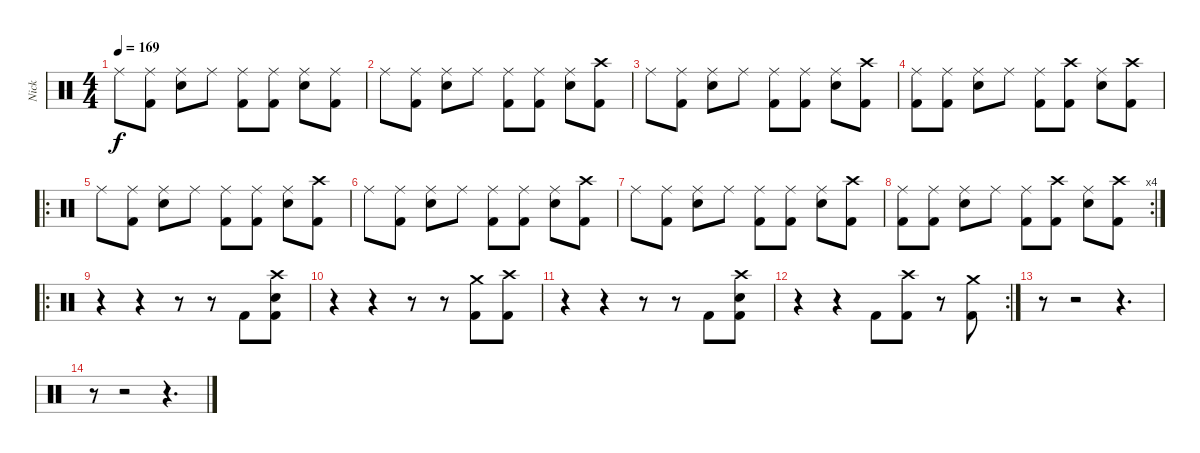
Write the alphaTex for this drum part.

\track ("Nick" "Nick") {instrument percussion}
\staff {score}
\articulation defaults
\ts (4 4)
\tempo 169
\clef neutral
\ks c "Ride (middle)".8{dy f}
("Ride (middle)" "Kick (hit) 2").8 ("Ride (middle)" "Snare (hit) 2").8 "Ride (middle)".8 ("Ride (middle)" "Kick (hit) 2").8 ("Ride (middle)" "Kick (hit) 2").8 ("Ride (middle)" "Snare (hit) 2").8 ("Ride (middle)" "Kick (hit) 2").8 |
"Ride (middle)".8 ("Ride (middle)" "Kick (hit) 2").8 ("Ride (middle)" "Snare (hit) 2").8 "Ride (middle)".8 ("Ride (middle)" "Kick (hit) 2").8 ("Ride (middle)" "Kick (hit) 2").8 ("Ride (middle)" "Snare (hit) 2").8 ("Crash high (hit)" "Kick (hit) 2").8 |
"Ride (middle)".8 ("Ride (middle)" "Kick (hit) 2").8 ("Ride (middle)" "Snare (hit) 2").8 "Ride (middle)".8 ("Ride (middle)" "Kick (hit) 2").8 ("Ride (middle)" "Kick (hit) 2").8 ("Ride (middle)" "Snare (hit) 2").8 ("Crash high (hit)" "Kick (hit) 2").8 |
("Ride (middle)" "Kick (hit) 2").8 ("Ride (middle)" "Kick (hit) 2").8 ("Ride (middle)" "Snare (hit) 2").8 "Ride (middle)".8 ("Ride (middle)" "Kick (hit) 2").8 ("Crash high (hit)" "Kick (hit) 2").8 ("Ride (middle)" "Snare (hit) 2").8 ("Crash high (hit)" "Kick (hit) 2").8 |
\ro "Ride (middle)".8
("Ride (middle)" "Kick (hit) 2").8 ("Ride (middle)" "Snare (hit) 2").8 "Ride (middle)".8 ("Ride (middle)" "Kick (hit) 2").8 ("Ride (middle)" "Kick (hit) 2").8 ("Ride (middle)" "Snare (hit) 2").8 ("Crash high (hit)" "Kick (hit) 2").8 |
"Ride (middle)".8 ("Ride (middle)" "Kick (hit) 2").8 ("Ride (middle)" "Snare (hit) 2").8 "Ride (middle)".8 ("Ride (middle)" "Kick (hit) 2").8 ("Ride (middle)" "Kick (hit) 2").8 ("Ride (middle)" "Snare (hit) 2").8 ("Crash high (hit)" "Kick (hit) 2").8 |
"Ride (middle)".8 ("Ride (middle)" "Kick (hit) 2").8 ("Ride (middle)" "Snare (hit) 2").8 "Ride (middle)".8 ("Ride (middle)" "Kick (hit) 2").8 ("Ride (middle)" "Kick (hit) 2").8 ("Ride (middle)" "Snare (hit) 2").8 ("Crash high (hit)" "Kick (hit) 2").8 |
\rc 4
("Ride (middle)" "Kick (hit) 2").8 ("Ride (middle)" "Kick (hit) 2").8 ("Ride (middle)" "Snare (hit) 2").8 "Ride (middle)".8 ("Ride (middle)" "Kick (hit) 2").8 ("Crash high (hit)" "Kick (hit) 2").8 ("Ride (middle)" "Snare (hit) 2").8 ("Crash high (hit)" "Kick (hit) 2").8 |
\ro
r.4 r.4 r.8 r.8 "Kick (hit) 2".8 ("Crash high (hit)" "Snare (hit) 2" "Kick (hit) 2").8 |
r.4 r.4 r.8 r.8 ("Crash medium (hit)" "Kick (hit) 2").8 ("Crash high (hit)" "Kick (hit) 2").8 |
r.4 r.4 r.8 r.8 "Kick (hit) 2".8 ("Crash high (hit)" "Snare (hit) 2" "Kick (hit) 2").8 |
\rc 2
r.4 r.4 "Kick (hit) 2".8 ("Crash high (hit)" "Kick (hit) 2").8 r.8 ("Crash medium (hit)" "Kick (hit) 2").8 |
r.8 r.2 r.4{d} |
r.8 r.2 r.4{d}
